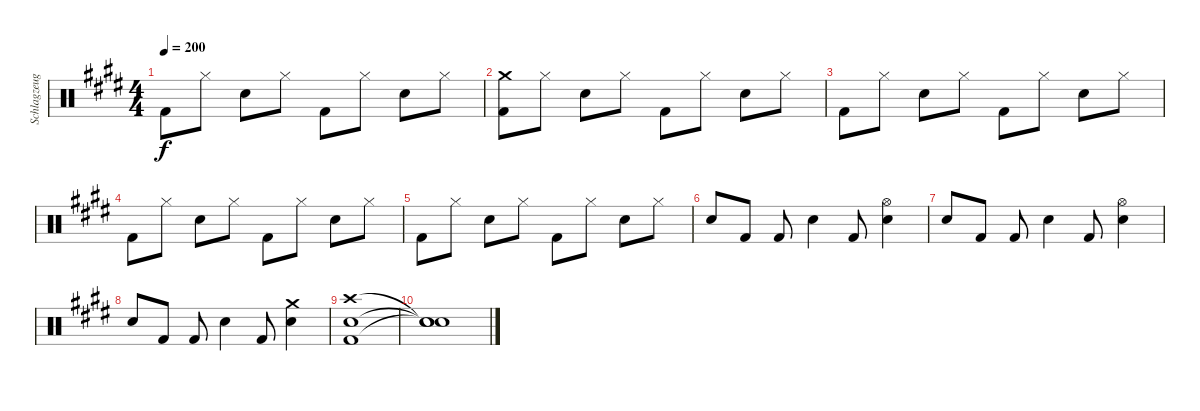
\track ("Schlagzeug" "Schlagzeug") {instrument percussion}
\staff {score}
\articulation defaults
\ts (4 4)
\tempo 200
\clef neutral
\ks e "Kick (hit) 2".8{dy f} "Hi-Hat (closed)".8 "Snare (hit) 2".8 "Hi-Hat (closed)".8 "Kick (hit) 2".8 "Hi-Hat (closed)".8 "Snare (hit) 2".8 "Hi-Hat (closed)".8
|
("Crash medium (hit)" "Kick (hit) 2").8 "Hi-Hat (closed)".8 "Snare (hit) 2".8 "Hi-Hat (closed)".8 "Kick (hit) 2".8 "Hi-Hat (closed)".8 "Snare (hit) 2".8 "Hi-Hat (closed)".8 |
"Kick (hit) 2".8 "Hi-Hat (closed)".8 "Snare (hit) 2".8 "Hi-Hat (closed)".8 "Kick (hit) 2".8 "Hi-Hat (closed)".8 "Snare (hit) 2".8 "Hi-Hat (closed)".8 |
"Kick (hit) 2".8 "Hi-Hat (closed)".8 "Snare (hit) 2".8 "Hi-Hat (closed)".8 "Kick (hit) 2".8 "Hi-Hat (closed)".8 "Snare (hit) 2".8 "Hi-Hat (closed)".8 |
"Kick (hit) 2".8 "Hi-Hat (closed)".8 "Snare (hit) 2".8 "Hi-Hat (closed)".8 "Kick (hit) 2".8 "Hi-Hat (closed)".8 "Snare (hit) 2".8 "Hi-Hat (closed)".8 |
"Snare (hit) 2".8 "Kick (hit) 2".8 "Kick (hit) 2".8 "Snare (hit) 2".4 "Kick (hit) 2".8 ("Hi-Hat (open)" "Snare (hit) 2").4 |
"Snare (hit) 2".8 "Kick (hit) 2".8 "Kick (hit) 2".8 "Snare (hit) 2".4 "Kick (hit) 2".8 ("Hi-Hat (open)" "Snare (hit) 2").4 |
"Snare (hit) 2".8 "Kick (hit) 2".8 "Kick (hit) 2".8 "Snare (hit) 2".4 "Kick (hit) 2".8 ("Crash medium (hit)" "Snare (hit) 2").4 |
("Crash high (hit)" "Snare (hit) 2" "Kick (hit) 2").1 |
("Snare (hit)"{t} "Snare (hit)"{t} "Snare (hit)"{t}).1
